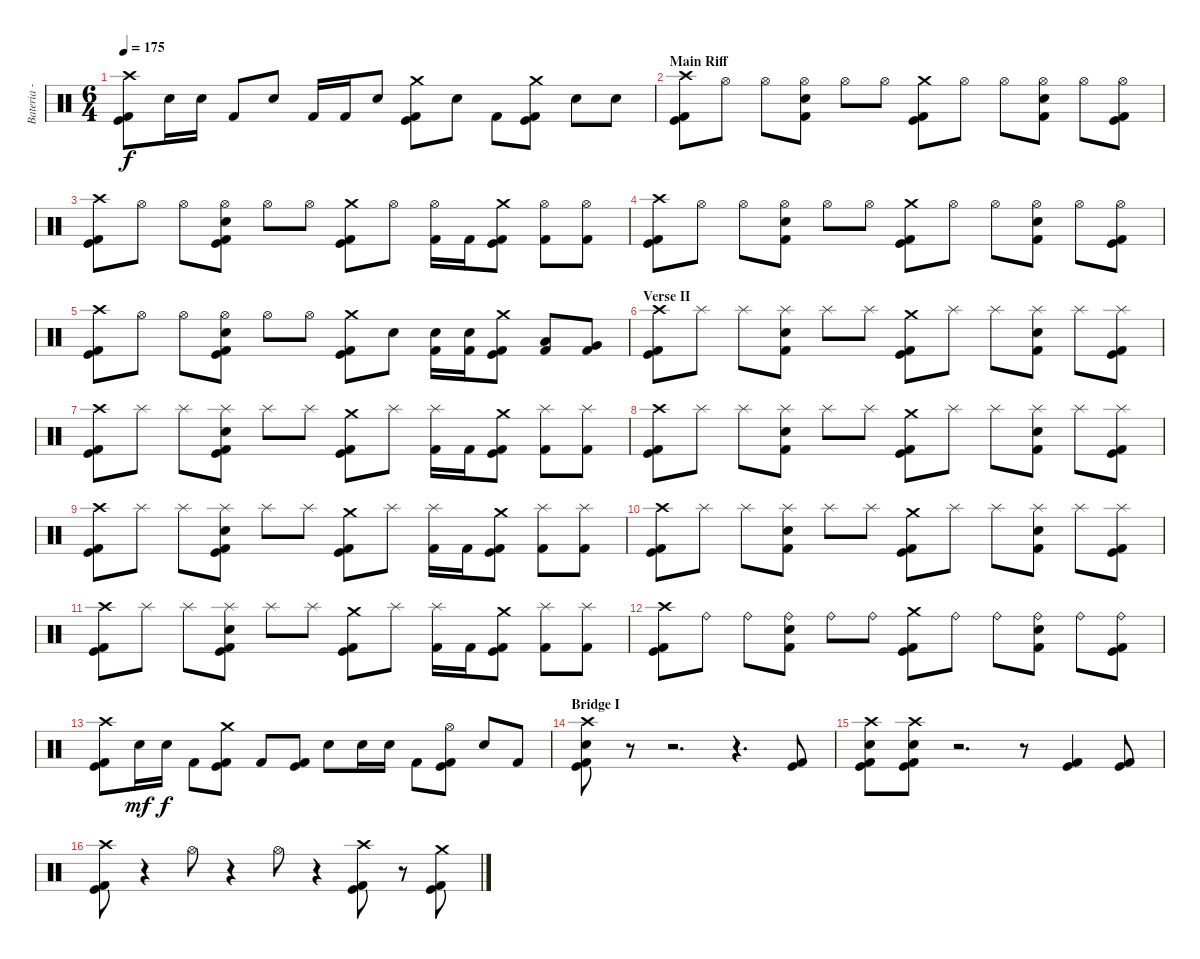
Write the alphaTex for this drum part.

\track ("Bateria - Drums" "Bateria - ") {instrument percussion}
\staff {score}
\articulation defaults
\ts (6 4)
\tempo 175
\clef neutral
\ks c
("Crash high (hit)" "Kick (hit)" "Kick (hit) 2").8{dy f} "Electric Snare (hit)".16 "Electric Snare (hit)".16 "Kick (hit) 2".8 "Snare (hit) 2".8 "Kick (hit) 2".16 "Kick (hit) 2".16 "Snare (hit) 2".8 ("Crash medium (hit)" "Kick (hit)" "Kick (hit) 2").8 "Snare (hit) 2".8 "Kick (hit) 2".8 ("Crash medium (hit)" "Kick (hit)" "Kick (hit) 2").8 "Snare (hit) 2".8 "Snare (hit) 2".8 |
\section ("" "Main Riff")
("Crash high (hit)" "Kick (hit)" "Kick (hit) 2").8 "Hi-Hat (open)".8 "Hi-Hat (open)".8 ("Hi-Hat (open)" "Snare (hit) 2" "Kick (hit) 2").8 "Hi-Hat (open)".8 "Hi-Hat (open)".8 ("Crash medium (hit)" "Kick (hit)" "Kick (hit) 2").8 "Hi-Hat (open)".8 "Hi-Hat (open)".8 ("Hi-Hat (open)" "Snare (hit) 2" "Kick (hit) 2").8 "Hi-Hat (open)".8 ("Hi-Hat (open)" "Kick (hit)" "Kick (hit) 2").8 |
("Crash high (hit)" "Kick (hit)" "Kick (hit) 2").8 "Hi-Hat (open)".8 "Hi-Hat (open)".8 ("Hi-Hat (open)" "Snare (hit) 2" "Kick (hit)" "Kick (hit) 2").8 "Hi-Hat (open)".8 "Hi-Hat (open)".8 ("Crash medium (hit)" "Kick (hit)" "Kick (hit) 2").8 "Hi-Hat (open)".8 ("Hi-Hat (open)" "Kick (hit) 2").16 "Kick (hit) 2".16 ("Crash medium (hit)" "Kick (hit)" "Kick (hit) 2").8 ("Hi-Hat (open)" "Kick (hit) 2").8 ("Hi-Hat (open)" "Kick (hit) 2").8 |
("Crash high (hit)" "Kick (hit)" "Kick (hit) 2").8 "Hi-Hat (open)".8 "Hi-Hat (open)".8 ("Hi-Hat (open)" "Snare (hit) 2" "Kick (hit) 2").8 "Hi-Hat (open)".8 "Hi-Hat (open)".8 ("Crash medium (hit)" "Kick (hit)" "Kick (hit) 2").8 "Hi-Hat (open)".8 "Hi-Hat (open)".8 ("Hi-Hat (open)" "Snare (hit) 2" "Kick (hit) 2").8 "Hi-Hat (open)".8 ("Hi-Hat (open)" "Kick (hit)" "Kick (hit) 2").8 |
("Crash high (hit)" "Kick (hit)" "Kick (hit) 2").8 "Hi-Hat (open)".8 "Hi-Hat (open)".8 ("Hi-Hat (open)" "Snare (hit) 2" "Kick (hit)" "Kick (hit) 2").8 "Hi-Hat (open)".8 "Hi-Hat (open)".8 ("Crash medium (hit)" "Kick (hit)" "Kick (hit) 2").8 "Snare (hit) 2".8 ("Snare (hit) 2" "Kick (hit) 2").16 ("Snare (hit) 2" "Kick (hit) 2").16 ("Crash medium (hit)" "Kick (hit)" "Kick (hit) 2").8 ("Low Tom (hit)" "Kick (hit) 2").8 ("Very Low Tom (hit)" "Kick (hit) 2").8 |
\section ("" "Verse II")
("Crash high (hit)" "Kick (hit)" "Kick (hit) 2").8 "Splash (hit)".8 "Splash (hit)".8 ("Splash (hit)" "Snare (hit) 2" "Kick (hit) 2").8 "Splash (hit)".8 "Splash (hit)".8 ("Crash medium (hit)" "Kick (hit)" "Kick (hit) 2").8 "Splash (hit)".8 "Splash (hit)".8 ("Splash (hit)" "Snare (hit) 2" "Kick (hit) 2").8 "Splash (hit)".8 ("Splash (hit)" "Kick (hit)" "Kick (hit) 2").8 |
("Crash high (hit)" "Kick (hit)" "Kick (hit) 2").8 "Splash (hit)".8 "Splash (hit)".8 ("Splash (hit)" "Snare (hit) 2" "Kick (hit)" "Kick (hit) 2").8 "Splash (hit)".8 "Splash (hit)".8 ("Crash medium (hit)" "Kick (hit)" "Kick (hit) 2").8 "Splash (hit)".8 ("Splash (hit)" "Kick (hit) 2").16 "Kick (hit) 2".16 ("Crash medium (hit)" "Kick (hit)" "Kick (hit) 2").8 ("Splash (hit)" "Kick (hit) 2").8 ("Splash (hit)" "Kick (hit) 2").8 |
("Crash high (hit)" "Kick (hit)" "Kick (hit) 2").8 "Splash (hit)".8 "Splash (hit)".8 ("Splash (hit)" "Snare (hit) 2" "Kick (hit) 2").8 "Splash (hit)".8 "Splash (hit)".8 ("Crash medium (hit)" "Kick (hit)" "Kick (hit) 2").8 "Splash (hit)".8 "Splash (hit)".8 ("Splash (hit)" "Snare (hit) 2" "Kick (hit) 2").8 "Splash (hit)".8 ("Splash (hit)" "Kick (hit)" "Kick (hit) 2").8 |
("Crash high (hit)" "Kick (hit)" "Kick (hit) 2").8 "Splash (hit)".8 "Splash (hit)".8 ("Splash (hit)" "Snare (hit) 2" "Kick (hit)" "Kick (hit) 2").8 "Splash (hit)".8 "Splash (hit)".8 ("Crash medium (hit)" "Kick (hit)" "Kick (hit) 2").8 "Splash (hit)".8 ("Splash (hit)" "Kick (hit) 2").16 "Kick (hit) 2".16 ("Crash medium (hit)" "Kick (hit)" "Kick (hit) 2").8 ("Splash (hit)" "Kick (hit) 2").8 ("Splash (hit)" "Kick (hit) 2").8 |
("Crash high (hit)" "Kick (hit)" "Kick (hit) 2").8 "Splash (hit)".8 "Splash (hit)".8 ("Splash (hit)" "Snare (hit) 2" "Kick (hit) 2").8 "Splash (hit)".8 "Splash (hit)".8 ("Crash medium (hit)" "Kick (hit)" "Kick (hit) 2").8 "Splash (hit)".8 "Splash (hit)".8 ("Splash (hit)" "Snare (hit) 2" "Kick (hit) 2").8 "Splash (hit)".8 ("Splash (hit)" "Kick (hit)" "Kick (hit) 2").8 |
("Crash high (hit)" "Kick (hit)" "Kick (hit) 2").8 "Splash (hit)".8 "Splash (hit)".8 ("Splash (hit)" "Snare (hit) 2" "Kick (hit)" "Kick (hit) 2").8 "Splash (hit)".8 "Splash (hit)".8 ("Crash medium (hit)" "Kick (hit)" "Kick (hit) 2").8 "Splash (hit)".8 ("Splash (hit)" "Kick (hit) 2").16 "Kick (hit) 2".16 ("Crash medium (hit)" "Kick (hit)" "Kick (hit) 2").8 ("Splash (hit)" "Kick (hit) 2").8 ("Splash (hit)" "Kick (hit) 2").8 |
("Crash high (hit)" "Kick (hit)" "Kick (hit) 2").8 "Ride (bell)".8 "Ride (bell)".8 ("Ride (bell)" "Snare (hit) 2" "Kick (hit) 2").8 "Ride (bell)".8 "Ride (bell)".8 ("Crash medium (hit)" "Kick (hit)" "Kick (hit) 2").8 "Ride (bell)".8 "Ride (bell)".8 ("Ride (bell)" "Snare (hit) 2" "Kick (hit) 2").8 "Ride (bell)".8 ("Ride (bell)" "Kick (hit)" "Kick (hit) 2").8 |
("Crash high (hit)" "Kick (hit)" "Kick (hit) 2").8 "Snare (hit) 2".16{dy mf} "Snare (hit) 2".16{dy f} "Kick (hit) 2".8 ("Crash medium (hit)" "Kick (hit)" "Kick (hit) 2").8 "Kick (hit) 2".8 ("Kick (hit)" "Kick (hit) 2").8 "Snare (hit) 2".8 "Electric Snare (hit)".16 "Electric Snare (hit)".16 "Kick (hit) 2".8 ("Hi-Hat (open)" "Kick (hit)" "Kick (hit) 2").8 "Snare (hit) 2".8 "Kick (hit) 2".8 |
\section ("" "Bridge I")
("Crash high (hit)" "Snare (hit) 2" "Kick (hit)" "Kick (hit) 2").8 r.8 r.2{d} r.4{d} ("Kick (hit)" "Kick (hit) 2").8 |
("Crash high (hit)" "Snare (hit) 2" "Kick (hit)" "Kick (hit) 2").8 ("Crash high (hit)" "Snare (hit) 2" "Kick (hit)" "Kick (hit) 2").8 r.2{d} r.8 ("Kick (hit)" "Kick (hit) 2").4 ("Kick (hit)" "Kick (hit) 2").8 |
("Crash high (hit)" "Kick (hit)" "Kick (hit) 2").8 r.4 "Hi-Hat (open)".8 r.4 "Hi-Hat (open)".8 r.4 ("Crash high (hit)" "Kick (hit)" "Kick (hit) 2").8 r.8 ("Crash medium (hit)" "Kick (hit)" "Kick (hit) 2").8
